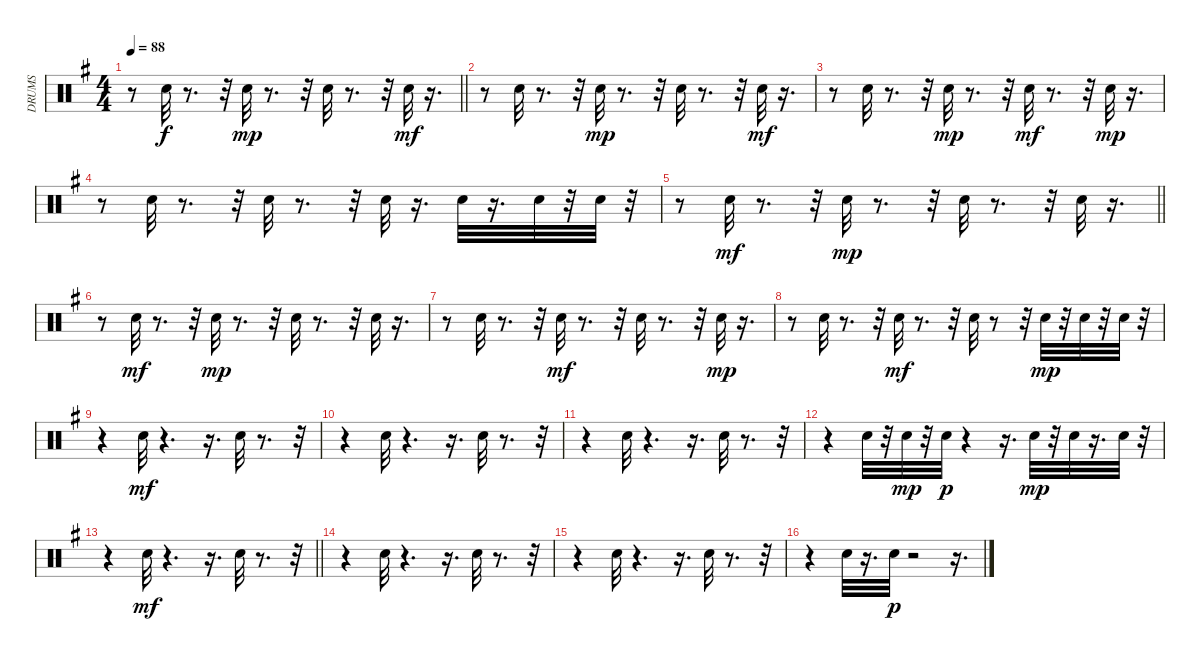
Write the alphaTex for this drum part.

\track ("DRUMS" "DRUMS") {instrument percussion}
\staff {score}
\articulation defaults
\ts (4 4)
\tempo 88
\clef neutral
\barLineRight lightlight
\ks g
r.8{dy p} "Snare (hit) 2".32{dy f} r.8{d} r.32 "Snare (hit) 2".32{dy mp} r.8{d} r.32 "Snare (hit) 2".32 r.8{d} r.32 "Snare (hit) 2".32{dy mf} r.16{d} |
r.8 "Snare (hit) 2".32 r.8{d} r.32 "Snare (hit) 2".32{dy mp} r.8{d} r.32 "Snare (hit) 2".32 r.8{d} r.32 "Snare (hit) 2".32{dy mf} r.16{d} |
r.8 "Snare (hit) 2".32 r.8{d} r.32 "Snare (hit) 2".32{dy mp} r.8{d} r.32 "Snare (hit) 2".32{dy mf} r.8{d} r.32 "Snare (hit) 2".32{dy mp} r.16{d} |
r.8 "Snare (hit) 2".32 r.8{d} r.32 "Snare (hit) 2".32 r.8{d} r.32 "Snare (hit) 2".32 r.16{d} "Snare (hit) 2".32 r.16{d} "Snare (hit) 2".32 r.32 "Snare (hit) 2".32 r.32 |
\barLineRight lightlight
r.8 "Snare (hit) 2".32{dy mf} r.8{d} r.32 "Snare (hit) 2".32{dy mp} r.8{d} r.32 "Snare (hit) 2".32 r.8{d} r.32 "Snare (hit) 2".32 r.16{d} |
r.8 "Snare (hit) 2".32{dy mf} r.8{d} r.32 "Snare (hit) 2".32{dy mp} r.8{d} r.32 "Snare (hit) 2".32 r.8{d} r.32 "Snare (hit) 2".32 r.16{d} |
r.8 "Snare (hit) 2".32 r.8{d} r.32 "Snare (hit) 2".32{dy mf} r.8{d} r.32 "Snare (hit) 2".32 r.8{d} r.32 "Snare (hit) 2".32{dy mp} r.16{d} |
r.8 "Snare (hit) 2".32 r.8{d} r.32 "Snare (hit) 2".32{dy mf} r.8{d} r.32 "Snare (hit) 2".32 r.8 r.32 "Snare (hit) 2".32{dy mp} r.32 "Snare (hit) 2".32 r.32 "Snare (hit) 2".32 r.32 |
r.4 "Snare (hit) 2".32{dy mf} r.4{d} r.16{d} "Snare (hit) 2".32 r.8{d} r.32 |
r.4 "Snare (hit) 2".32 r.4{d} r.16{d} "Snare (hit) 2".32 r.8{d} r.32 |
r.4 "Snare (hit) 2".32 r.4{d} r.16{d} "Snare (hit) 2".32 r.8{d} r.32 |
r.4 "Snare (hit) 2".32 r.32 "Snare (hit) 2".32{dy mp} r.32 "Snare (hit) 2".32{dy p} r.4 r.16{d} "Snare (hit) 2".32{dy mp} r.32 "Snare (hit) 2".32 r.16{d} "Snare (hit) 2".32 r.32 |
\barLineRight lightlight
r.4 "Snare (hit) 2".32{dy mf} r.4{d} r.16{d} "Snare (hit) 2".32 r.8{d} r.32 |
r.4 "Snare (hit) 2".32 r.4{d} r.16{d} "Snare (hit) 2".32 r.8{d} r.32 |
r.4 "Snare (hit) 2".32 r.4{d} r.16{d} "Snare (hit) 2".32 r.8{d} r.32 |
r.4 "Snare (hit) 2".32 r.16{d} "Snare (hit) 2".32{dy p} r.2 r.16{d}
